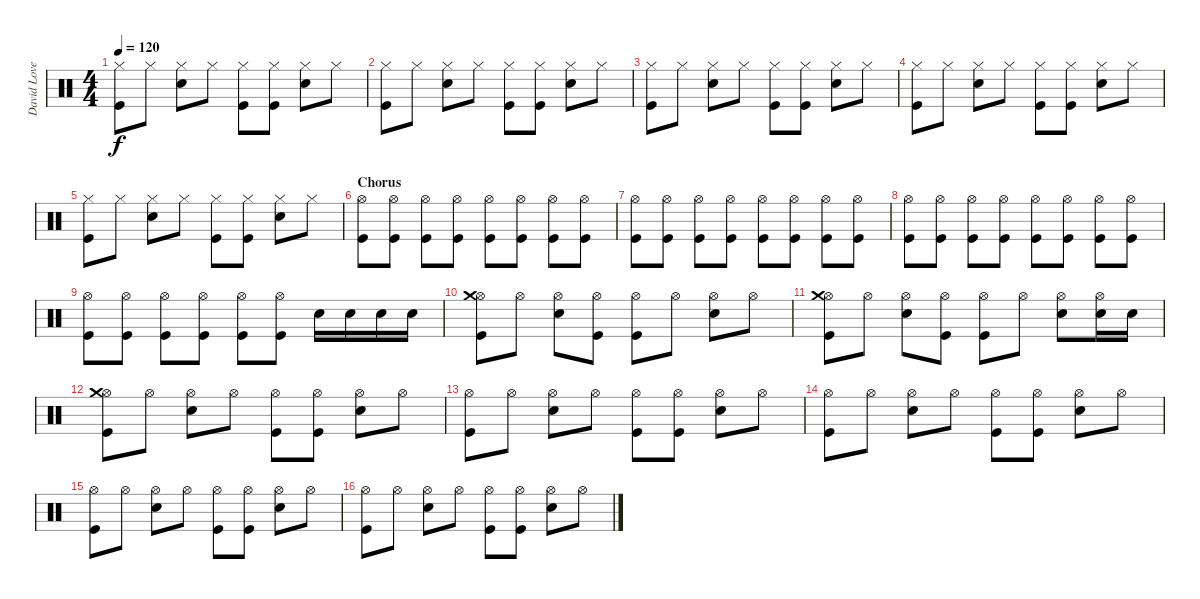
\track ("David Lovering" "David Love") {instrument percussion}
\staff {score}
\articulation defaults
\ts (4 4)
\tempo 120
\clef neutral
\ks c
("Hi-Hat (closed)" "Kick (hit)").8{dy f} "Hi-Hat (closed)".8 ("Hi-Hat (closed)" "Snare (hit) 2").8 "Hi-Hat (closed)".8 ("Hi-Hat (closed)" "Kick (hit)").8 ("Hi-Hat (closed)" "Kick (hit)").8 ("Hi-Hat (closed)" "Snare (hit) 2").8 "Hi-Hat (closed)".8 |
("Hi-Hat (closed)" "Kick (hit)").8 "Hi-Hat (closed)".8 ("Hi-Hat (closed)" "Snare (hit) 2").8 "Hi-Hat (closed)".8 ("Hi-Hat (closed)" "Kick (hit)").8 ("Hi-Hat (closed)" "Kick (hit)").8 ("Hi-Hat (closed)" "Snare (hit) 2").8 "Hi-Hat (closed)".8 |
("Hi-Hat (closed)" "Kick (hit)").8 "Hi-Hat (closed)".8 ("Hi-Hat (closed)" "Snare (hit) 2").8 "Hi-Hat (closed)".8 ("Hi-Hat (closed)" "Kick (hit)").8 ("Hi-Hat (closed)" "Kick (hit)").8 ("Hi-Hat (closed)" "Snare (hit) 2").8 "Hi-Hat (closed)".8 |
("Hi-Hat (closed)" "Kick (hit)").8 "Hi-Hat (closed)".8 ("Hi-Hat (closed)" "Snare (hit) 2").8 "Hi-Hat (closed)".8 ("Hi-Hat (closed)" "Kick (hit)").8 ("Hi-Hat (closed)" "Kick (hit)").8 ("Hi-Hat (closed)" "Snare (hit) 2").8 "Hi-Hat (closed)".8 |
("Hi-Hat (closed)" "Kick (hit)").8 "Hi-Hat (closed)".8 ("Hi-Hat (closed)" "Snare (hit) 2").8 "Hi-Hat (closed)".8 ("Hi-Hat (closed)" "Kick (hit)").8 ("Hi-Hat (closed)" "Kick (hit)").8 ("Hi-Hat (closed)" "Snare (hit) 2").8 "Hi-Hat (closed)".8 |
\section ("" "Chorus")
("Hi-Hat (open)" "Kick (hit)").8 ("Hi-Hat (open)" "Kick (hit)").8 ("Hi-Hat (open)" "Kick (hit)").8 ("Hi-Hat (open)" "Kick (hit)").8 ("Hi-Hat (open)" "Kick (hit)").8 ("Hi-Hat (open)" "Kick (hit)").8 ("Hi-Hat (open)" "Kick (hit)").8 ("Hi-Hat (open)" "Kick (hit)").8 |
("Hi-Hat (open)" "Kick (hit)").8 ("Hi-Hat (open)" "Kick (hit)").8 ("Hi-Hat (open)" "Kick (hit)").8 ("Hi-Hat (open)" "Kick (hit)").8 ("Hi-Hat (open)" "Kick (hit)").8 ("Hi-Hat (open)" "Kick (hit)").8 ("Hi-Hat (open)" "Kick (hit)").8 ("Hi-Hat (open)" "Kick (hit)").8 |
("Hi-Hat (open)" "Kick (hit)").8 ("Hi-Hat (open)" "Kick (hit)").8 ("Hi-Hat (open)" "Kick (hit)").8 ("Hi-Hat (open)" "Kick (hit)").8 ("Hi-Hat (open)" "Kick (hit)").8 ("Hi-Hat (open)" "Kick (hit)").8 ("Hi-Hat (open)" "Kick (hit)").8 ("Hi-Hat (open)" "Kick (hit)").8 |
("Hi-Hat (open)" "Kick (hit)").8 ("Hi-Hat (open)" "Kick (hit)").8 ("Hi-Hat (open)" "Kick (hit)").8 ("Hi-Hat (open)" "Kick (hit)").8 ("Hi-Hat (open)" "Kick (hit)").8 ("Hi-Hat (open)" "Kick (hit)").8 "Snare (hit) 2".16 "Snare (hit) 2".16 "Snare (hit) 2".16 "Snare (hit) 2".16 |
("Hi-Hat (open)" "Crash medium (hit)" "Kick (hit)").8 "Hi-Hat (open)".8 ("Hi-Hat (open)" "Snare (hit) 2").8 ("Hi-Hat (open)" "Kick (hit)").8 ("Hi-Hat (open)" "Kick (hit)").8 "Hi-Hat (open)".8 ("Hi-Hat (open)" "Snare (hit) 2").8 "Hi-Hat (open)".8 |
("Hi-Hat (open)" "Crash medium (hit)" "Kick (hit)").8 "Hi-Hat (open)".8 ("Hi-Hat (open)" "Snare (hit) 2").8 ("Hi-Hat (open)" "Kick (hit)").8 ("Hi-Hat (open)" "Kick (hit)").8 "Hi-Hat (open)".8 ("Hi-Hat (open)" "Snare (hit) 2").8 ("Hi-Hat (open)" "Snare (hit) 2").16 "Snare (hit) 2".16 |
("Hi-Hat (open)" "Crash medium (hit)" "Kick (hit)").8 "Hi-Hat (open)".8 ("Hi-Hat (open)" "Snare (hit) 2").8 "Hi-Hat (open)".8 ("Hi-Hat (open)" "Kick (hit)").8 ("Hi-Hat (open)" "Kick (hit)").8 ("Hi-Hat (open)" "Snare (hit) 2").8 "Hi-Hat (open)".8 |
("Hi-Hat (open)" "Kick (hit)").8 "Hi-Hat (open)".8 ("Hi-Hat (open)" "Snare (hit) 2").8 "Hi-Hat (open)".8 ("Hi-Hat (open)" "Kick (hit)").8 ("Hi-Hat (open)" "Kick (hit)").8 ("Hi-Hat (open)" "Snare (hit) 2").8 "Hi-Hat (open)".8 |
("Hi-Hat (open)" "Kick (hit)").8 "Hi-Hat (open)".8 ("Hi-Hat (open)" "Snare (hit) 2").8 "Hi-Hat (open)".8 ("Hi-Hat (open)" "Kick (hit)").8 ("Hi-Hat (open)" "Kick (hit)").8 ("Hi-Hat (open)" "Snare (hit) 2").8 "Hi-Hat (open)".8 |
("Hi-Hat (open)" "Kick (hit)").8 "Hi-Hat (open)".8 ("Hi-Hat (open)" "Snare (hit) 2").8 "Hi-Hat (open)".8 ("Hi-Hat (open)" "Kick (hit)").8 ("Hi-Hat (open)" "Kick (hit)").8 ("Hi-Hat (open)" "Snare (hit) 2").8 "Hi-Hat (open)".8 |
("Hi-Hat (open)" "Kick (hit)").8 "Hi-Hat (open)".8 ("Hi-Hat (open)" "Snare (hit) 2").8 "Hi-Hat (open)".8 ("Hi-Hat (open)" "Kick (hit)").8 ("Hi-Hat (open)" "Kick (hit)").8 ("Hi-Hat (open)" "Snare (hit) 2").8 "Hi-Hat (open)".8
